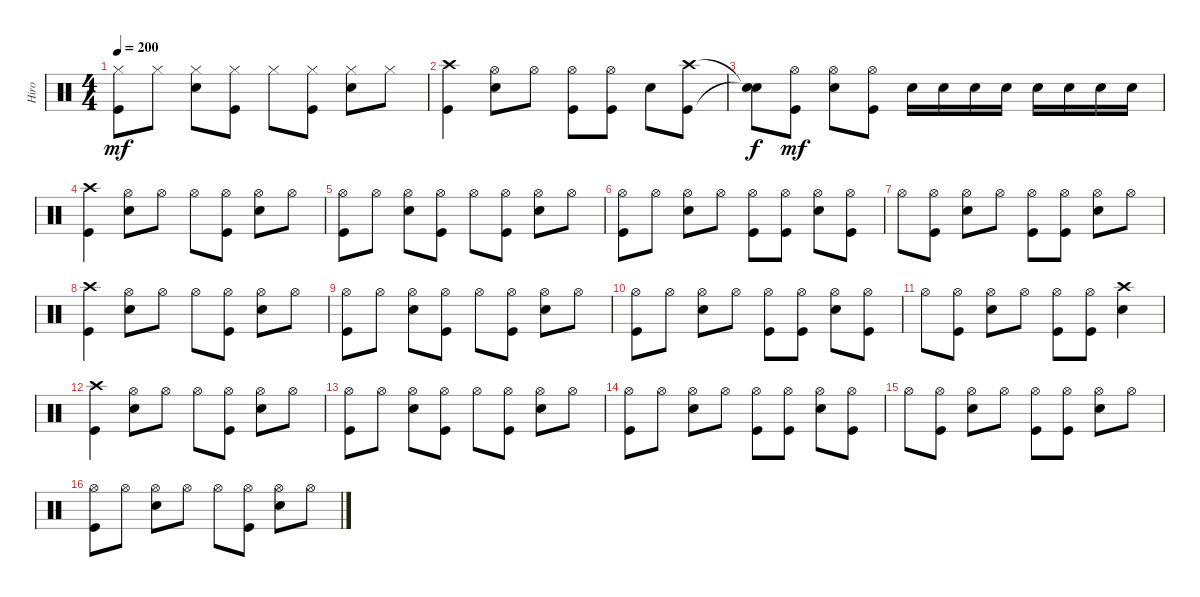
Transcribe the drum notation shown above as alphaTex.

\track ("Hiro" "Hiro") {instrument percussion}
\staff {score}
\articulation defaults
\ts (4 4)
\tempo 200
\clef neutral
\ks c
("Hi-Hat (closed)" "Kick (hit)").8{dy mf} "Hi-Hat (closed)".8 ("Hi-Hat (closed)" "Electric Snare (hit)").8 ("Hi-Hat (closed)" "Kick (hit)").8 "Hi-Hat (closed)".8 ("Hi-Hat (closed)" "Kick (hit)").8 ("Hi-Hat (closed)" "Electric Snare (hit)").8 "Hi-Hat (closed)".8 |
("Kick (hit)" "Crash high (hit)").4 ("Electric Snare (hit)" "Hi-Hat (open)").8 "Hi-Hat (open)".8 ("Kick (hit)" "Hi-Hat (open)").8 ("Kick (hit)" "Hi-Hat (open)").8 "Electric Snare (hit)".8 ("Crash high (hit)" "Kick (hit)").8 |
("Snare (hit)"{t} "Snare (hit)"{t}).8{dy f} ("Kick (hit)" "Hi-Hat (open)").8{dy mf} ("Electric Snare (hit)" "Hi-Hat (open)").8 ("Hi-Hat (open)" "Kick (hit)").8 "Electric Snare (hit)".16 "Electric Snare (hit)".16 "Electric Snare (hit)".16 "Electric Snare (hit)".16 "Electric Snare (hit)".16 "Electric Snare (hit)".16 "Electric Snare (hit)".16 "Electric Snare (hit)".16 |
("Crash high (hit)" "Kick (hit)").4 ("Electric Snare (hit)" "Hi-Hat (open)").8 "Hi-Hat (open)".8 "Hi-Hat (open)".8 ("Kick (hit)" "Hi-Hat (open)").8 ("Electric Snare (hit)" "Hi-Hat (open)").8 "Hi-Hat (open)".8 |
("Kick (hit)" "Hi-Hat (open)").8 "Hi-Hat (open)".8 ("Electric Snare (hit)" "Hi-Hat (open)").8 ("Kick (hit)" "Hi-Hat (open)").8 "Hi-Hat (open)".8 ("Kick (hit)" "Hi-Hat (open)").8 ("Electric Snare (hit)" "Hi-Hat (open)").8 "Hi-Hat (open)".8 |
("Kick (hit)" "Hi-Hat (open)").8 "Hi-Hat (open)".8 ("Electric Snare (hit)" "Hi-Hat (open)").8 "Hi-Hat (open)".8 ("Kick (hit)" "Hi-Hat (open)").8 ("Kick (hit)" "Hi-Hat (open)").8 ("Electric Snare (hit)" "Hi-Hat (open)").8 ("Kick (hit)" "Hi-Hat (open)").8 |
"Hi-Hat (open)".8 ("Kick (hit)" "Hi-Hat (open)").8 ("Electric Snare (hit)" "Hi-Hat (open)").8 "Hi-Hat (open)".8 ("Kick (hit)" "Hi-Hat (open)").8 ("Kick (hit)" "Hi-Hat (open)").8 ("Electric Snare (hit)" "Hi-Hat (open)").8 "Hi-Hat (open)".8 |
("Kick (hit)" "Crash high (hit)").4 ("Hi-Hat (open)" "Electric Snare (hit)").8 "Hi-Hat (open)".8 "Hi-Hat (open)".8 ("Hi-Hat (open)" "Kick (hit)").8 ("Hi-Hat (open)" "Electric Snare (hit)").8 "Hi-Hat (open)".8 |
("Hi-Hat (open)" "Kick (hit)").8 "Hi-Hat (open)".8 ("Hi-Hat (open)" "Electric Snare (hit)").8 ("Hi-Hat (open)" "Kick (hit)").8 "Hi-Hat (open)".8 ("Hi-Hat (open)" "Kick (hit)").8 ("Hi-Hat (open)" "Electric Snare (hit)").8 "Hi-Hat (open)".8 |
("Hi-Hat (open)" "Kick (hit)").8 "Hi-Hat (open)".8 ("Hi-Hat (open)" "Electric Snare (hit)").8 "Hi-Hat (open)".8 ("Hi-Hat (open)" "Kick (hit)").8 ("Hi-Hat (open)" "Kick (hit)").8 ("Hi-Hat (open)" "Electric Snare (hit)").8 ("Hi-Hat (open)" "Kick (hit)").8 |
"Hi-Hat (open)".8 ("Hi-Hat (open)" "Kick (hit)").8 ("Hi-Hat (open)" "Electric Snare (hit)").8 "Hi-Hat (open)".8 ("Hi-Hat (open)" "Kick (hit)").8 ("Hi-Hat (open)" "Kick (hit)").8 ("Crash high (hit)" "Electric Snare (hit)").4 |
("Kick (hit)" "Crash high (hit)").4 ("Hi-Hat (open)" "Electric Snare (hit)").8 "Hi-Hat (open)".8 "Hi-Hat (open)".8 ("Hi-Hat (open)" "Kick (hit)").8 ("Hi-Hat (open)" "Electric Snare (hit)").8 "Hi-Hat (open)".8 |
("Hi-Hat (open)" "Kick (hit)").8 "Hi-Hat (open)".8 ("Hi-Hat (open)" "Electric Snare (hit)").8 ("Hi-Hat (open)" "Kick (hit)").8 "Hi-Hat (open)".8 ("Hi-Hat (open)" "Kick (hit)").8 ("Hi-Hat (open)" "Electric Snare (hit)").8 "Hi-Hat (open)".8 |
("Hi-Hat (open)" "Kick (hit)").8 "Hi-Hat (open)".8 ("Hi-Hat (open)" "Electric Snare (hit)").8 "Hi-Hat (open)".8 ("Hi-Hat (open)" "Kick (hit)").8 ("Hi-Hat (open)" "Kick (hit)").8 ("Hi-Hat (open)" "Electric Snare (hit)").8 ("Hi-Hat (open)" "Kick (hit)").8 |
"Hi-Hat (open)".8 ("Hi-Hat (open)" "Kick (hit)").8 ("Hi-Hat (open)" "Electric Snare (hit)").8 "Hi-Hat (open)".8 ("Hi-Hat (open)" "Kick (hit)").8 ("Hi-Hat (open)" "Kick (hit)").8 ("Hi-Hat (open)" "Electric Snare (hit)").8 "Hi-Hat (open)".8 |
("Kick (hit)" "Hi-Hat (open)").8 "Hi-Hat (open)".8 ("Hi-Hat (open)" "Electric Snare (hit)").8 "Hi-Hat (open)".8 "Hi-Hat (open)".8 ("Hi-Hat (open)" "Kick (hit)").8 ("Hi-Hat (open)" "Electric Snare (hit)").8 "Hi-Hat (open)".8
